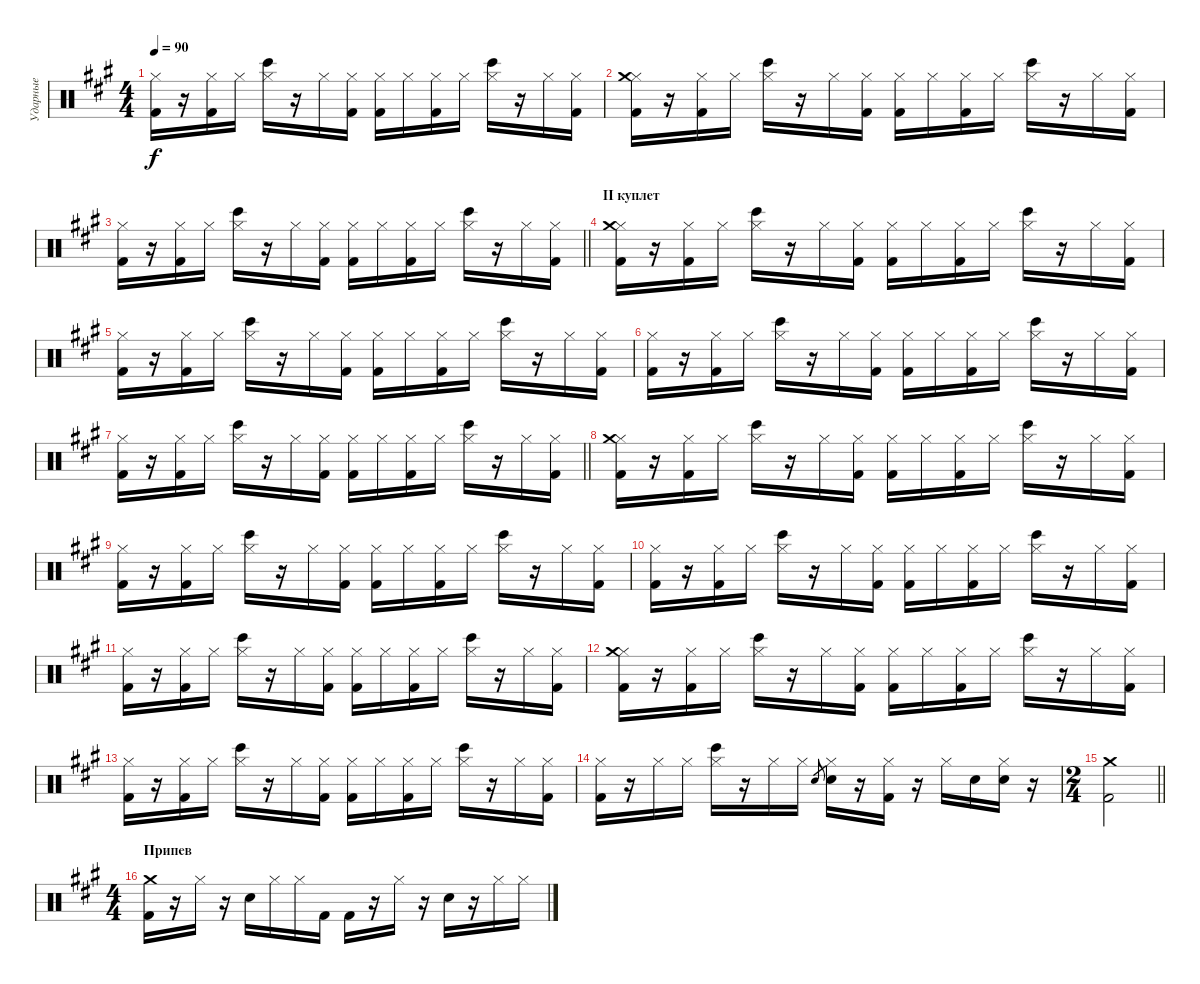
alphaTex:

\track ("Ударные" "Ударные") {instrument percussion}
\staff {score}
\articulation defaults
\ts (4 4)
\tempo 90
\clef neutral
\ks f#minor
("Hi-Hat (closed)" "Kick (hit) 2").16{dy f} r.16 ("Hi-Hat (closed)" "Kick (hit) 2").16 "Hi-Hat (closed)".16 ("Hi-Hat (closed)" "Bongo High (hit)").16 r.16 "Hi-Hat (closed)".16 ("Hi-Hat (closed)" "Kick (hit) 2").16 ("Hi-Hat (closed)" "Kick (hit) 2").16 "Hi-Hat (closed)".16 ("Hi-Hat (closed)" "Kick (hit) 2").16 "Hi-Hat (closed)".16 ("Hi-Hat (closed)" "Bongo High (hit)").16 r.16 "Hi-Hat (closed)".16 ("Hi-Hat (closed)" "Kick (hit) 2").16 |
("Hi-Hat (closed)" "Kick (hit) 2" "Crash medium (hit)").16 r.16 ("Hi-Hat (closed)" "Kick (hit) 2").16 "Hi-Hat (closed)".16 ("Hi-Hat (closed)" "Bongo High (hit)").16 r.16 "Hi-Hat (closed)".16 ("Hi-Hat (closed)" "Kick (hit) 2").16 ("Hi-Hat (closed)" "Kick (hit) 2").16 "Hi-Hat (closed)".16 ("Hi-Hat (closed)" "Kick (hit) 2").16 "Hi-Hat (closed)".16 ("Hi-Hat (closed)" "Bongo High (hit)").16 r.16 "Hi-Hat (closed)".16 ("Hi-Hat (closed)" "Kick (hit) 2").16 |
\barLineRight lightlight
("Hi-Hat (closed)" "Kick (hit) 2").16 r.16 ("Hi-Hat (closed)" "Kick (hit) 2").16 "Hi-Hat (closed)".16 ("Hi-Hat (closed)" "Bongo High (hit)").16 r.16 "Hi-Hat (closed)".16 ("Hi-Hat (closed)" "Kick (hit) 2").16 ("Hi-Hat (closed)" "Kick (hit) 2").16 "Hi-Hat (closed)".16 ("Hi-Hat (closed)" "Kick (hit) 2").16 "Hi-Hat (closed)".16 ("Hi-Hat (closed)" "Bongo High (hit)").16 r.16 "Hi-Hat (closed)".16 ("Hi-Hat (closed)" "Kick (hit) 2").16 |
\section ("" "II куплет")
("Hi-Hat (closed)" "Kick (hit) 2" "Crash medium (hit)").16 r.16 ("Hi-Hat (closed)" "Kick (hit) 2").16 "Hi-Hat (closed)".16 ("Hi-Hat (closed)" "Bongo High (hit)").16 r.16 "Hi-Hat (closed)".16 ("Hi-Hat (closed)" "Kick (hit) 2").16 ("Hi-Hat (closed)" "Kick (hit) 2").16 "Hi-Hat (closed)".16 ("Hi-Hat (closed)" "Kick (hit) 2").16 "Hi-Hat (closed)".16 ("Hi-Hat (closed)" "Bongo High (hit)").16 r.16 "Hi-Hat (closed)".16 ("Hi-Hat (closed)" "Kick (hit) 2").16 |
("Hi-Hat (closed)" "Kick (hit) 2").16 r.16 ("Hi-Hat (closed)" "Kick (hit) 2").16 "Hi-Hat (closed)".16 ("Hi-Hat (closed)" "Bongo High (hit)").16 r.16 "Hi-Hat (closed)".16 ("Hi-Hat (closed)" "Kick (hit) 2").16 ("Hi-Hat (closed)" "Kick (hit) 2").16 "Hi-Hat (closed)".16 ("Hi-Hat (closed)" "Kick (hit) 2").16 "Hi-Hat (closed)".16 ("Hi-Hat (closed)" "Bongo High (hit)").16 r.16 "Hi-Hat (closed)".16 ("Hi-Hat (closed)" "Kick (hit) 2").16 |
("Hi-Hat (closed)" "Kick (hit) 2").16 r.16 ("Hi-Hat (closed)" "Kick (hit) 2").16 "Hi-Hat (closed)".16 ("Hi-Hat (closed)" "Bongo High (hit)").16 r.16 "Hi-Hat (closed)".16 ("Hi-Hat (closed)" "Kick (hit) 2").16 ("Hi-Hat (closed)" "Kick (hit) 2").16 "Hi-Hat (closed)".16 ("Hi-Hat (closed)" "Kick (hit) 2").16 "Hi-Hat (closed)".16 ("Hi-Hat (closed)" "Bongo High (hit)").16 r.16 "Hi-Hat (closed)".16 ("Hi-Hat (closed)" "Kick (hit) 2").16 |
\barLineRight lightlight
("Hi-Hat (closed)" "Kick (hit) 2").16 r.16 ("Hi-Hat (closed)" "Kick (hit) 2").16 "Hi-Hat (closed)".16 ("Hi-Hat (closed)" "Bongo High (hit)").16 r.16 "Hi-Hat (closed)".16 ("Hi-Hat (closed)" "Kick (hit) 2").16 ("Hi-Hat (closed)" "Kick (hit) 2").16 "Hi-Hat (closed)".16 ("Hi-Hat (closed)" "Kick (hit) 2").16 "Hi-Hat (closed)".16 ("Hi-Hat (closed)" "Bongo High (hit)").16 r.16 "Hi-Hat (closed)".16 ("Hi-Hat (closed)" "Kick (hit) 2").16 |
("Hi-Hat (closed)" "Kick (hit) 2" "Crash medium (hit)").16 r.16 ("Hi-Hat (closed)" "Kick (hit) 2").16 "Hi-Hat (closed)".16 ("Hi-Hat (closed)" "Bongo High (hit)").16 r.16 "Hi-Hat (closed)".16 ("Hi-Hat (closed)" "Kick (hit) 2").16 ("Hi-Hat (closed)" "Kick (hit) 2").16 "Hi-Hat (closed)".16 ("Hi-Hat (closed)" "Kick (hit) 2").16 "Hi-Hat (closed)".16 ("Hi-Hat (closed)" "Bongo High (hit)").16 r.16 "Hi-Hat (closed)".16 ("Hi-Hat (closed)" "Kick (hit) 2").16 |
("Hi-Hat (closed)" "Kick (hit) 2").16 r.16 ("Hi-Hat (closed)" "Kick (hit) 2").16 "Hi-Hat (closed)".16 ("Hi-Hat (closed)" "Bongo High (hit)").16 r.16 "Hi-Hat (closed)".16 ("Hi-Hat (closed)" "Kick (hit) 2").16 ("Hi-Hat (closed)" "Kick (hit) 2").16 "Hi-Hat (closed)".16 ("Hi-Hat (closed)" "Kick (hit) 2").16 "Hi-Hat (closed)".16 ("Hi-Hat (closed)" "Bongo High (hit)").16 r.16 "Hi-Hat (closed)".16 ("Hi-Hat (closed)" "Kick (hit) 2").16 |
("Hi-Hat (closed)" "Kick (hit) 2").16 r.16 ("Hi-Hat (closed)" "Kick (hit) 2").16 "Hi-Hat (closed)".16 ("Hi-Hat (closed)" "Bongo High (hit)").16 r.16 "Hi-Hat (closed)".16 ("Hi-Hat (closed)" "Kick (hit) 2").16 ("Hi-Hat (closed)" "Kick (hit) 2").16 "Hi-Hat (closed)".16 ("Hi-Hat (closed)" "Kick (hit) 2").16 "Hi-Hat (closed)".16 ("Hi-Hat (closed)" "Bongo High (hit)").16 r.16 "Hi-Hat (closed)".16 ("Hi-Hat (closed)" "Kick (hit) 2").16 |
("Hi-Hat (closed)" "Kick (hit) 2").16 r.16 ("Hi-Hat (closed)" "Kick (hit) 2").16 "Hi-Hat (closed)".16 ("Hi-Hat (closed)" "Bongo High (hit)").16 r.16 "Hi-Hat (closed)".16 ("Hi-Hat (closed)" "Kick (hit) 2").16 ("Hi-Hat (closed)" "Kick (hit) 2").16 "Hi-Hat (closed)".16 ("Hi-Hat (closed)" "Kick (hit) 2").16 "Hi-Hat (closed)".16 ("Hi-Hat (closed)" "Bongo High (hit)").16 r.16 "Hi-Hat (closed)".16 ("Hi-Hat (closed)" "Kick (hit) 2").16 |
("Hi-Hat (closed)" "Kick (hit) 2" "Crash medium (hit)").16 r.16 ("Hi-Hat (closed)" "Kick (hit) 2").16 "Hi-Hat (closed)".16 ("Hi-Hat (closed)" "Bongo High (hit)").16 r.16 "Hi-Hat (closed)".16 ("Hi-Hat (closed)" "Kick (hit) 2").16 ("Hi-Hat (closed)" "Kick (hit) 2").16 "Hi-Hat (closed)".16 ("Hi-Hat (closed)" "Kick (hit) 2").16 "Hi-Hat (closed)".16 ("Hi-Hat (closed)" "Bongo High (hit)").16 r.16 "Hi-Hat (closed)".16 ("Hi-Hat (closed)" "Kick (hit) 2").16 |
("Hi-Hat (closed)" "Kick (hit) 2").16 r.16 ("Hi-Hat (closed)" "Kick (hit) 2").16 "Hi-Hat (closed)".16 ("Hi-Hat (closed)" "Bongo High (hit)").16 r.16 "Hi-Hat (closed)".16 ("Hi-Hat (closed)" "Kick (hit) 2").16 ("Hi-Hat (closed)" "Kick (hit) 2").16 "Hi-Hat (closed)".16 ("Hi-Hat (closed)" "Kick (hit) 2").16 "Hi-Hat (closed)".16 ("Hi-Hat (closed)" "Bongo High (hit)").16 r.16 "Hi-Hat (closed)".16 ("Hi-Hat (closed)" "Kick (hit) 2").16 |
("Hi-Hat (closed)" "Kick (hit) 2").16 r.16 "Hi-Hat (closed)".16 "Hi-Hat (closed)".16 ("Hi-Hat (closed)" "Bongo High (hit)").16 r.16 "Hi-Hat (closed)".16 "Hi-Hat (closed)".16 "Electric Snare (hit)".8{gr} ("Hi-Hat (closed)" "Electric Snare (hit)").16 r.16 ("Hi-Hat (closed)" "Kick (hit) 2").16 r.16 "Hi-Hat (closed)".16 "Electric Snare (hit)".16 ("Hi-Hat (closed)" "Electric Snare (hit)").16 r.16 |
\ts (2 4)
\barLineRight lightlight
("Kick (hit) 2" "Crash medium (hit)").2 |
\ts (4 4)
\section ("" "Припев")
("Crash medium (hit)" "Kick (hit) 2").16 r.16 "Hi-Hat (closed)".16 r.16 "Electric Snare (hit)".16 "Hi-Hat (closed)".16 "Hi-Hat (closed)".16 "Kick (hit) 2".16 "Kick (hit) 2".16 r.16 "Hi-Hat (closed)".16 r.16 "Electric Snare (hit)".16 r.16 "Hi-Hat (closed)".16 "Hi-Hat (closed)".16
